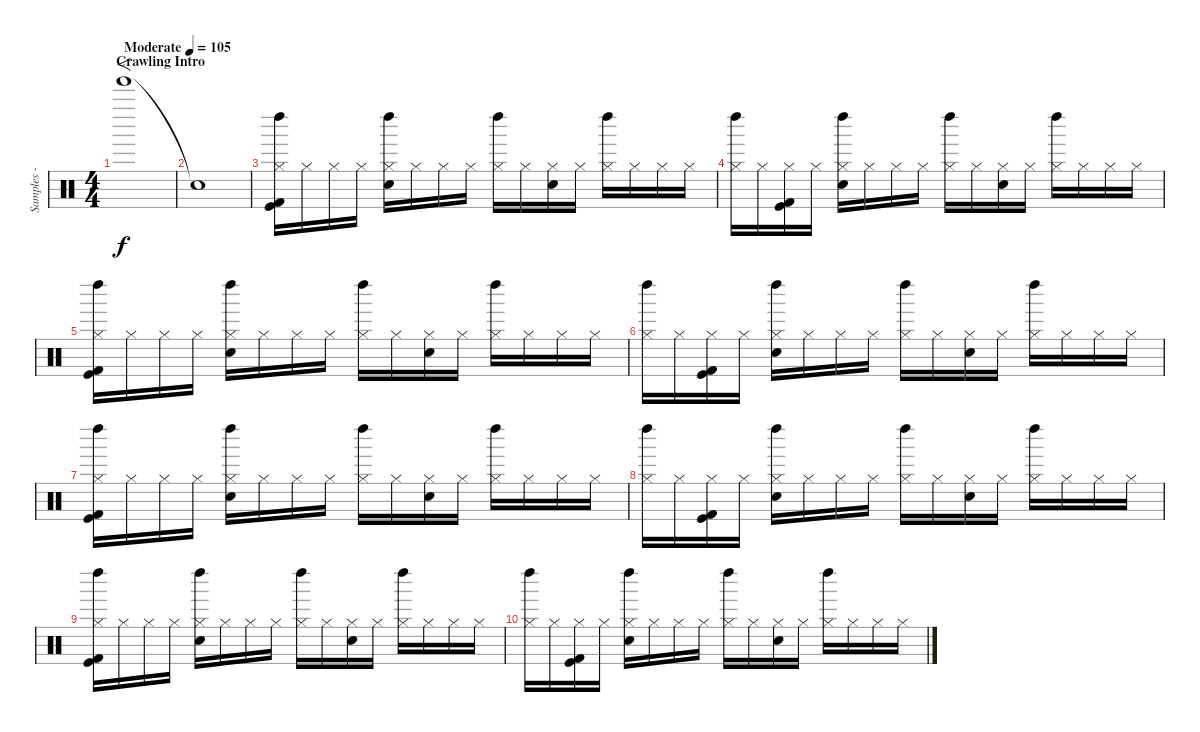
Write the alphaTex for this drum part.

\track ("Samples - Joe Hahn" "Samples - ") {instrument percussion}
\staff {score}
\articulation defaults
\ts (4 4)
\section ("" "Crawling Intro")
\tempo (105 "Moderate")
\clef neutral
\ks c "Tinkle Bell (hit)".1{f dy f volume 9}
|
"Snare (hit)"{t}.1 |
("Hi-Hat (closed)" "Left Maraca (hit)" "Kick (hit) 2" "Kick (hit)").16{volume 16} "Hi-Hat (closed)".16 "Hi-Hat (closed)".16 "Hi-Hat (closed)".16 ("Hi-Hat (closed)" "Left Maraca (hit)" "Hand Clap (hit)").16 "Hi-Hat (closed)".16 "Hi-Hat (closed)".16 "Hi-Hat (closed)".16 ("Hi-Hat (closed)" "Left Maraca (hit)").16 "Hi-Hat (closed)".16 ("Hi-Hat (closed)" "Hand Clap (hit)").16 "Hi-Hat (closed)".16 ("Hi-Hat (closed)" "Left Maraca (hit)").16 "Hi-Hat (closed)".16 "Hi-Hat (closed)".16 "Hi-Hat (closed)".16 |
("Hi-Hat (closed)" "Left Maraca (hit)").16 "Hi-Hat (closed)".16 ("Hi-Hat (closed)" "Kick (hit) 2" "Kick (hit)").16 "Hi-Hat (closed)".16 ("Hi-Hat (closed)" "Left Maraca (hit)" "Hand Clap (hit)").16 "Hi-Hat (closed)".16 "Hi-Hat (closed)".16 "Hi-Hat (closed)".16 ("Hi-Hat (closed)" "Left Maraca (hit)").16 "Hi-Hat (closed)".16 ("Hi-Hat (closed)" "Hand Clap (hit)").16 "Hi-Hat (closed)".16 ("Hi-Hat (closed)" "Left Maraca (hit)").16 "Hi-Hat (closed)".16 "Hi-Hat (closed)".16 "Hi-Hat (closed)".16 |
("Hi-Hat (closed)" "Left Maraca (hit)" "Kick (hit) 2" "Kick (hit)").16 "Hi-Hat (closed)".16 "Hi-Hat (closed)".16 "Hi-Hat (closed)".16 ("Hi-Hat (closed)" "Left Maraca (hit)" "Hand Clap (hit)").16 "Hi-Hat (closed)".16 "Hi-Hat (closed)".16 "Hi-Hat (closed)".16 ("Hi-Hat (closed)" "Left Maraca (hit)").16 "Hi-Hat (closed)".16 ("Hi-Hat (closed)" "Hand Clap (hit)").16 "Hi-Hat (closed)".16 ("Hi-Hat (closed)" "Left Maraca (hit)").16 "Hi-Hat (closed)".16 "Hi-Hat (closed)".16 "Hi-Hat (closed)".16 |
("Hi-Hat (closed)" "Left Maraca (hit)").16 "Hi-Hat (closed)".16 ("Hi-Hat (closed)" "Kick (hit) 2" "Kick (hit)").16 "Hi-Hat (closed)".16 ("Hi-Hat (closed)" "Left Maraca (hit)" "Hand Clap (hit)").16 "Hi-Hat (closed)".16 "Hi-Hat (closed)".16 "Hi-Hat (closed)".16 ("Hi-Hat (closed)" "Left Maraca (hit)").16 "Hi-Hat (closed)".16 ("Hi-Hat (closed)" "Hand Clap (hit)").16 "Hi-Hat (closed)".16 ("Hi-Hat (closed)" "Left Maraca (hit)").16 "Hi-Hat (closed)".16 "Hi-Hat (closed)".16 "Hi-Hat (closed)".16 |
("Hi-Hat (closed)" "Left Maraca (hit)" "Kick (hit) 2" "Kick (hit)").16 "Hi-Hat (closed)".16 "Hi-Hat (closed)".16 "Hi-Hat (closed)".16 ("Hi-Hat (closed)" "Left Maraca (hit)" "Hand Clap (hit)").16 "Hi-Hat (closed)".16 "Hi-Hat (closed)".16 "Hi-Hat (closed)".16 ("Hi-Hat (closed)" "Left Maraca (hit)").16 "Hi-Hat (closed)".16 ("Hi-Hat (closed)" "Hand Clap (hit)").16 "Hi-Hat (closed)".16 ("Hi-Hat (closed)" "Left Maraca (hit)").16 "Hi-Hat (closed)".16 "Hi-Hat (closed)".16 "Hi-Hat (closed)".16 |
("Hi-Hat (closed)" "Left Maraca (hit)").16 "Hi-Hat (closed)".16 ("Hi-Hat (closed)" "Kick (hit) 2" "Kick (hit)").16 "Hi-Hat (closed)".16 ("Hi-Hat (closed)" "Left Maraca (hit)" "Hand Clap (hit)").16 "Hi-Hat (closed)".16 "Hi-Hat (closed)".16 "Hi-Hat (closed)".16 ("Hi-Hat (closed)" "Left Maraca (hit)").16 "Hi-Hat (closed)".16 ("Hi-Hat (closed)" "Hand Clap (hit)").16 "Hi-Hat (closed)".16 ("Hi-Hat (closed)" "Left Maraca (hit)").16 "Hi-Hat (closed)".16 "Hi-Hat (closed)".16 "Hi-Hat (closed)".16 |
("Hi-Hat (closed)" "Left Maraca (hit)" "Kick (hit) 2" "Kick (hit)").16 "Hi-Hat (closed)".16 "Hi-Hat (closed)".16 "Hi-Hat (closed)".16 ("Hi-Hat (closed)" "Left Maraca (hit)" "Hand Clap (hit)").16 "Hi-Hat (closed)".16 "Hi-Hat (closed)".16 "Hi-Hat (closed)".16 ("Hi-Hat (closed)" "Left Maraca (hit)").16 "Hi-Hat (closed)".16 ("Hi-Hat (closed)" "Hand Clap (hit)").16 "Hi-Hat (closed)".16 ("Hi-Hat (closed)" "Left Maraca (hit)").16 "Hi-Hat (closed)".16 "Hi-Hat (closed)".16 "Hi-Hat (closed)".16 |
("Hi-Hat (closed)" "Left Maraca (hit)").16 "Hi-Hat (closed)".16 ("Hi-Hat (closed)" "Kick (hit) 2" "Kick (hit)").16 "Hi-Hat (closed)".16 ("Hi-Hat (closed)" "Left Maraca (hit)" "Hand Clap (hit)").16 "Hi-Hat (closed)".16 "Hi-Hat (closed)".16 "Hi-Hat (closed)".16 ("Hi-Hat (closed)" "Left Maraca (hit)").16 "Hi-Hat (closed)".16 ("Hi-Hat (closed)" "Hand Clap (hit)").16 "Hi-Hat (closed)".16 ("Hi-Hat (closed)" "Left Maraca (hit)").16 "Hi-Hat (closed)".16 "Hi-Hat (closed)".16 "Hi-Hat (closed)".16
